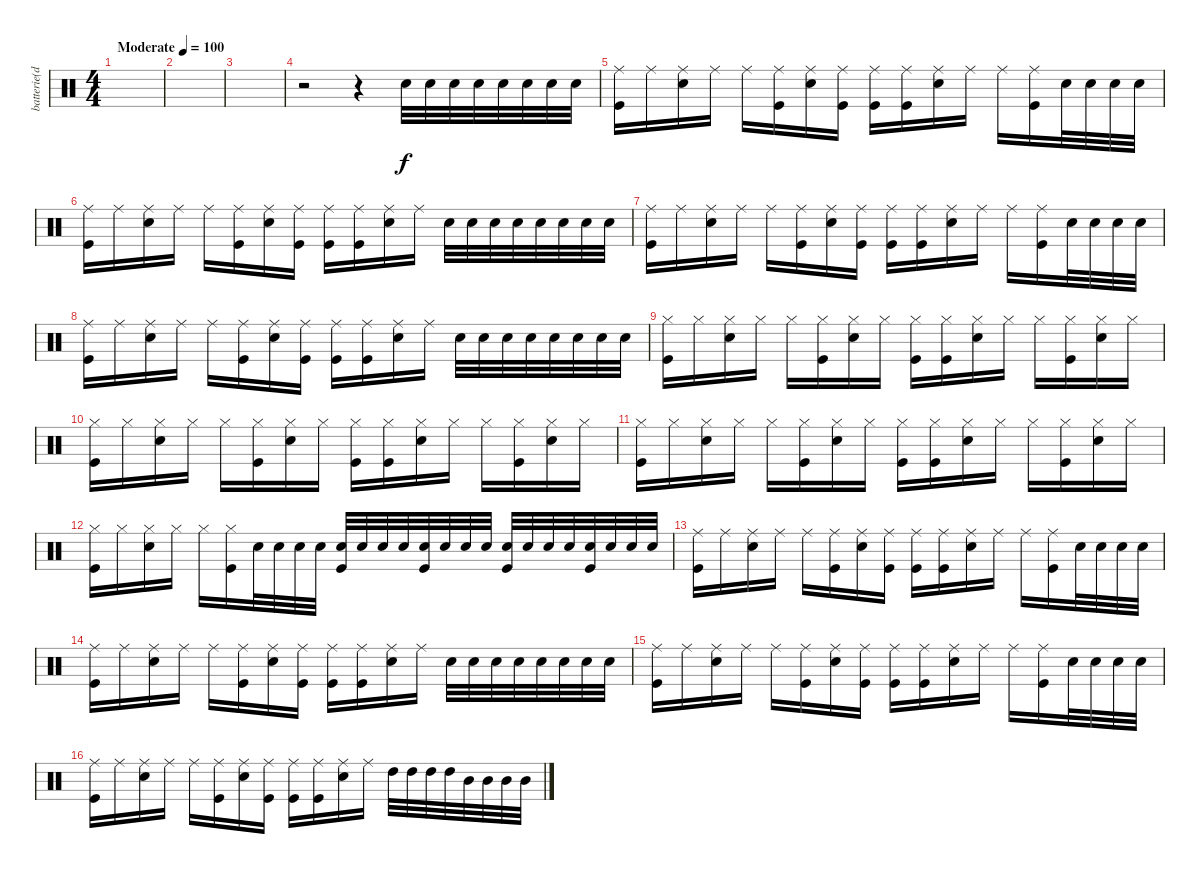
\track ("batterie(dave)" "batterie(d") {instrument percussion}
\staff {score}
\articulation defaults
\ts (4 4)
\tempo (100 "Moderate")
\clef neutral
\ks c
|
|
|
r.2 r.4 "Snare (hit) 2".32 "Snare (hit) 2".32 "Snare (hit) 2".32 "Snare (hit) 2".32 "Snare (hit) 2".32 "Snare (hit) 2".32 "Snare (hit) 2".32 "Snare (hit) 2".32 |
("Ride (middle)" "Kick (hit)").16 "Ride (middle)".16 ("Ride (middle)" "Snare (hit) 2").16 "Ride (middle)".16 "Ride (middle)".16 ("Ride (middle)" "Kick (hit)").16 ("Ride (middle)" "Snare (hit) 2").16 ("Ride (middle)" "Kick (hit)").16 ("Ride (middle)" "Kick (hit)").16 ("Ride (middle)" "Kick (hit)").16 ("Ride (middle)" "Snare (hit) 2").16 "Ride (middle)".16 "Ride (middle)".16 ("Ride (middle)" "Kick (hit)").16 "Snare (hit) 2".32 "Snare (hit) 2".32 "Snare (hit) 2".32 "Snare (hit) 2".32 |
("Ride (middle)" "Kick (hit)").16 "Ride (middle)".16 ("Ride (middle)" "Snare (hit) 2").16 "Ride (middle)".16 "Ride (middle)".16 ("Ride (middle)" "Kick (hit)").16 ("Ride (middle)" "Snare (hit) 2").16 ("Ride (middle)" "Kick (hit)").16 ("Ride (middle)" "Kick (hit)").16 ("Ride (middle)" "Kick (hit)").16 ("Ride (middle)" "Snare (hit) 2").16 "Ride (middle)".16 "Snare (hit) 2".32 "Snare (hit) 2".32 "Snare (hit) 2".32 "Snare (hit) 2".32 "Snare (hit) 2".32 "Snare (hit) 2".32 "Snare (hit) 2".32 "Snare (hit) 2".32 |
("Ride (middle)" "Kick (hit)").16 "Ride (middle)".16 ("Ride (middle)" "Snare (hit) 2").16 "Ride (middle)".16 "Ride (middle)".16 ("Ride (middle)" "Kick (hit)").16 ("Ride (middle)" "Snare (hit) 2").16 ("Ride (middle)" "Kick (hit)").16 ("Ride (middle)" "Kick (hit)").16 ("Ride (middle)" "Kick (hit)").16 ("Ride (middle)" "Snare (hit) 2").16 "Ride (middle)".16 "Ride (middle)".16 ("Ride (middle)" "Kick (hit)").16 "Snare (hit) 2".32 "Snare (hit) 2".32 "Snare (hit) 2".32 "Snare (hit) 2".32 |
("Ride (middle)" "Kick (hit)").16 "Ride (middle)".16 ("Ride (middle)" "Snare (hit) 2").16 "Ride (middle)".16 "Ride (middle)".16 ("Ride (middle)" "Kick (hit)").16 ("Ride (middle)" "Snare (hit) 2").16 ("Ride (middle)" "Kick (hit)").16 ("Ride (middle)" "Kick (hit)").16 ("Ride (middle)" "Kick (hit)").16 ("Ride (middle)" "Snare (hit) 2").16 "Ride (middle)".16 "Snare (hit) 2".32 "Snare (hit) 2".32 "Snare (hit) 2".32 "Snare (hit) 2".32 "Snare (hit) 2".32 "Snare (hit) 2".32 "Snare (hit) 2".32 "Snare (hit) 2".32 |
("Hi-Hat (closed)" "Kick (hit)").16 "Hi-Hat (closed)".16 ("Hi-Hat (closed)" "Snare (hit) 2").16 "Hi-Hat (closed)".16 "Hi-Hat (closed)".16 ("Hi-Hat (closed)" "Kick (hit)").16 ("Hi-Hat (closed)" "Snare (hit) 2").16 "Hi-Hat (closed)".16 ("Hi-Hat (closed)" "Kick (hit)").16 ("Hi-Hat (closed)" "Kick (hit)").16 ("Hi-Hat (closed)" "Snare (hit) 2").16 "Hi-Hat (closed)".16 "Hi-Hat (closed)".16 ("Hi-Hat (closed)" "Kick (hit)").16 ("Hi-Hat (closed)" "Snare (hit) 2").16 "Hi-Hat (closed)".16 |
("Hi-Hat (closed)" "Kick (hit)").16 "Hi-Hat (closed)".16 ("Hi-Hat (closed)" "Snare (hit) 2").16 "Hi-Hat (closed)".16 "Hi-Hat (closed)".16 ("Hi-Hat (closed)" "Kick (hit)").16 ("Hi-Hat (closed)" "Snare (hit) 2").16 "Hi-Hat (closed)".16 ("Hi-Hat (closed)" "Kick (hit)").16 ("Hi-Hat (closed)" "Kick (hit)").16 ("Hi-Hat (closed)" "Snare (hit) 2").16 "Hi-Hat (closed)".16 "Hi-Hat (closed)".16 ("Hi-Hat (closed)" "Kick (hit)").16 ("Hi-Hat (closed)" "Snare (hit) 2").16 "Hi-Hat (closed)".16 |
("Hi-Hat (closed)" "Kick (hit)").16 "Hi-Hat (closed)".16 ("Hi-Hat (closed)" "Snare (hit) 2").16 "Hi-Hat (closed)".16 "Hi-Hat (closed)".16 ("Hi-Hat (closed)" "Kick (hit)").16 ("Hi-Hat (closed)" "Snare (hit) 2").16 "Hi-Hat (closed)".16 ("Hi-Hat (closed)" "Kick (hit)").16 ("Hi-Hat (closed)" "Kick (hit)").16 ("Hi-Hat (closed)" "Snare (hit) 2").16 "Hi-Hat (closed)".16 "Hi-Hat (closed)".16 ("Hi-Hat (closed)" "Kick (hit)").16 ("Hi-Hat (closed)" "Snare (hit) 2").16 "Hi-Hat (closed)".16 |
("Hi-Hat (closed)" "Kick (hit)").16 "Hi-Hat (closed)".16 ("Hi-Hat (closed)" "Snare (hit) 2").16 "Hi-Hat (closed)".16 "Hi-Hat (closed)".16 ("Hi-Hat (closed)" "Kick (hit)").16 "Snare (hit) 2".32 "Snare (hit) 2".32 "Snare (hit) 2".32 "Snare (hit) 2".32 ("Snare (hit) 2" "Kick (hit)").32 "Snare (hit) 2".32 "Snare (hit) 2".32 "Snare (hit) 2".32 ("Snare (hit) 2" "Kick (hit)").32 "Snare (hit) 2".32 "Snare (hit) 2".32 "Snare (hit) 2".32 ("Snare (hit) 2" "Kick (hit)").32 "Snare (hit) 2".32 "Snare (hit) 2".32 "Snare (hit) 2".32 ("Snare (hit) 2" "Kick (hit)").32 "Snare (hit) 2".32 "Snare (hit) 2".32 "Snare (hit) 2".32 |
("Ride (middle)" "Kick (hit)").16 "Ride (middle)".16 ("Ride (middle)" "Snare (hit) 2").16 "Ride (middle)".16 "Ride (middle)".16 ("Ride (middle)" "Kick (hit)").16 ("Ride (middle)" "Snare (hit) 2").16 ("Ride (middle)" "Kick (hit)").16 ("Ride (middle)" "Kick (hit)").16 ("Ride (middle)" "Kick (hit)").16 ("Ride (middle)" "Snare (hit) 2").16 "Ride (middle)".16 "Ride (middle)".16 ("Ride (middle)" "Kick (hit)").16 "Snare (hit) 2".32 "Snare (hit) 2".32 "Snare (hit) 2".32 "Snare (hit) 2".32 |
("Ride (middle)" "Kick (hit)").16 "Ride (middle)".16 ("Ride (middle)" "Snare (hit) 2").16 "Ride (middle)".16 "Ride (middle)".16 ("Ride (middle)" "Kick (hit)").16 ("Ride (middle)" "Snare (hit) 2").16 ("Ride (middle)" "Kick (hit)").16 ("Ride (middle)" "Kick (hit)").16 ("Ride (middle)" "Kick (hit)").16 ("Ride (middle)" "Snare (hit) 2").16 "Ride (middle)".16 "Snare (hit) 2".32 "Snare (hit) 2".32 "Snare (hit) 2".32 "Snare (hit) 2".32 "Snare (hit) 2".32 "Snare (hit) 2".32 "Snare (hit) 2".32 "Snare (hit) 2".32 |
("Ride (middle)" "Kick (hit)").16 "Ride (middle)".16 ("Ride (middle)" "Snare (hit) 2").16 "Ride (middle)".16 "Ride (middle)".16 ("Ride (middle)" "Kick (hit)").16 ("Ride (middle)" "Snare (hit) 2").16 ("Ride (middle)" "Kick (hit)").16 ("Ride (middle)" "Kick (hit)").16 ("Ride (middle)" "Kick (hit)").16 ("Ride (middle)" "Snare (hit) 2").16 "Ride (middle)".16 "Ride (middle)".16 ("Ride (middle)" "Kick (hit)").16 "Snare (hit) 2".32 "Snare (hit) 2".32 "Snare (hit) 2".32 "Snare (hit) 2".32 |
("Ride (middle)" "Kick (hit)").16 "Ride (middle)".16 ("Ride (middle)" "Snare (hit) 2").16 "Ride (middle)".16 "Ride (middle)".16 ("Ride (middle)" "Kick (hit)").16 ("Ride (middle)" "Snare (hit) 2").16 ("Ride (middle)" "Kick (hit)").16 ("Ride (middle)" "Kick (hit)").16 ("Ride (middle)" "Kick (hit)").16 ("Ride (middle)" "Snare (hit) 2").16 "Ride (middle)".16 "High Tom (hit)".32 "High Tom (hit)".32 "High Tom (hit)".32 "High Tom (hit)".32 "Mid Tom (hit)".32 "Mid Tom (hit)".32 "Mid Tom (hit)".32 "Mid Tom (hit)".32
